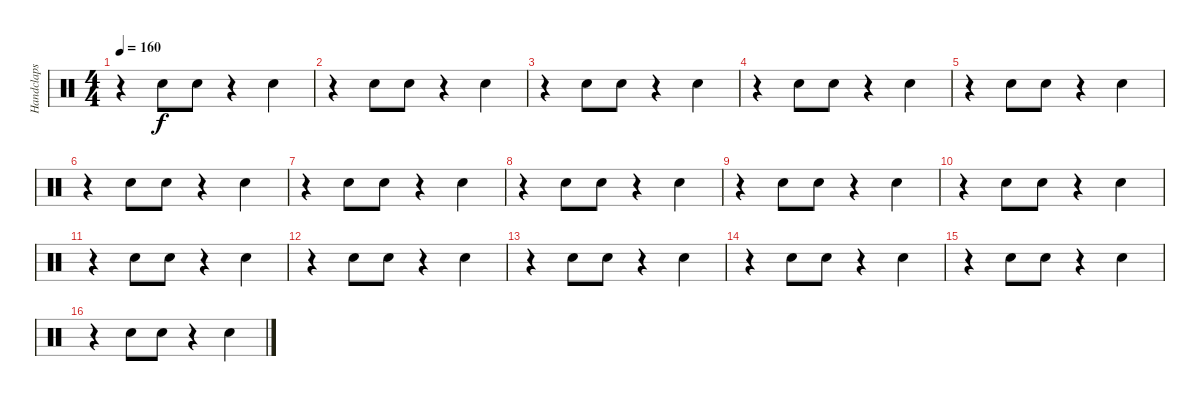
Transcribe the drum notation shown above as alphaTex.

\track ("Handclaps" "Handclaps") {instrument percussion}
\staff {score}
\articulation defaults
\ts (4 4)
\tempo 160
\clef neutral
\ks c
r.4{dy f} "Hand Clap (hit)".8 "Hand Clap (hit)".8 r.4 "Hand Clap (hit)".4 |
r.4 "Hand Clap (hit)".8 "Hand Clap (hit)".8 r.4 "Hand Clap (hit)".4 |
r.4 "Hand Clap (hit)".8 "Hand Clap (hit)".8 r.4 "Hand Clap (hit)".4 |
r.4 "Hand Clap (hit)".8 "Hand Clap (hit)".8 r.4 "Hand Clap (hit)".4 |
r.4 "Hand Clap (hit)".8 "Hand Clap (hit)".8 r.4 "Hand Clap (hit)".4 |
r.4 "Hand Clap (hit)".8 "Hand Clap (hit)".8 r.4 "Hand Clap (hit)".4 |
r.4 "Hand Clap (hit)".8 "Hand Clap (hit)".8 r.4 "Hand Clap (hit)".4 |
r.4 "Hand Clap (hit)".8 "Hand Clap (hit)".8 r.4 "Hand Clap (hit)".4 |
r.4 "Hand Clap (hit)".8 "Hand Clap (hit)".8 r.4 "Hand Clap (hit)".4 |
r.4 "Hand Clap (hit)".8 "Hand Clap (hit)".8 r.4 "Hand Clap (hit)".4 |
r.4 "Hand Clap (hit)".8 "Hand Clap (hit)".8 r.4 "Hand Clap (hit)".4 |
r.4 "Hand Clap (hit)".8 "Hand Clap (hit)".8 r.4 "Hand Clap (hit)".4 |
r.4 "Hand Clap (hit)".8 "Hand Clap (hit)".8 r.4 "Hand Clap (hit)".4 |
r.4 "Hand Clap (hit)".8 "Hand Clap (hit)".8 r.4 "Hand Clap (hit)".4 |
r.4 "Hand Clap (hit)".8 "Hand Clap (hit)".8 r.4 "Hand Clap (hit)".4 |
r.4 "Hand Clap (hit)".8 "Hand Clap (hit)".8 r.4 "Hand Clap (hit)".4
